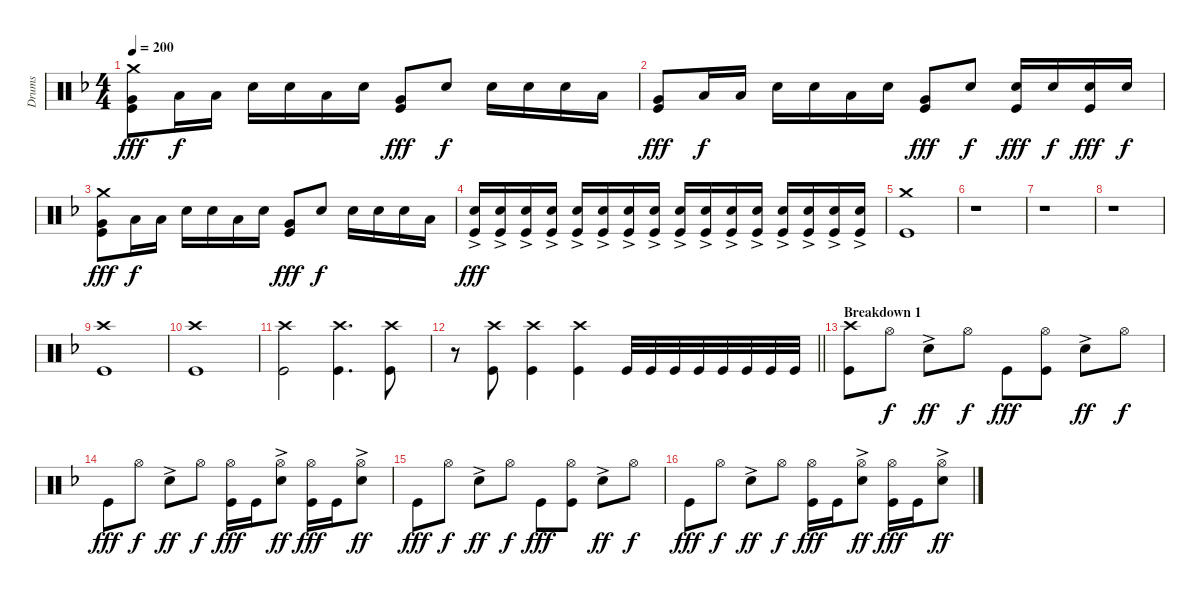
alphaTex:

\track ("Drums" "Drums") {instrument percussion bank 25}
\staff {score}
\articulation defaults
\ts (4 4)
\tempo 200
\clef neutral
\ks dminor
("Crash medium (hit)" "Very Low Tom (hit)" "Kick (hit)").8{dy fff} "Low Tom (hit)".16{dy f} "Low Tom (hit)".16 "Electric Snare (hit)".16 "Electric Snare (hit)".16 "Low Tom (hit)".16 "Electric Snare (hit)".16 ("Very Low Tom (hit)" "Kick (hit)").8{dy fff} "Electric Snare (hit)".8{dy f} "Electric Snare (hit)".16 "Electric Snare (hit)".16 "Electric Snare (hit)".16 "Low Tom (hit)".16 |
("Very Low Tom (hit)" "Kick (hit)").8{dy fff} "Low Tom (hit)".16{dy f} "Low Tom (hit)".16 "Electric Snare (hit)".16 "Electric Snare (hit)".16 "Low Tom (hit)".16 "Electric Snare (hit)".16 ("Very Low Tom (hit)" "Kick (hit)").8{dy fff} "Electric Snare (hit)".8{dy f} ("Electric Snare (hit)" "Kick (hit)").16{dy fff} "Electric Snare (hit)".16{dy f} ("Electric Snare (hit)" "Kick (hit)").16{dy fff} "Electric Snare (hit)".16{dy f} |
("Crash medium (hit)" "Very Low Tom (hit)" "Kick (hit)").8{dy fff} "Low Tom (hit)".16{dy f} "Low Tom (hit)".16 "Electric Snare (hit)".16 "Electric Snare (hit)".16 "Low Tom (hit)".16 "Electric Snare (hit)".16 ("Very Low Tom (hit)" "Kick (hit)").8{dy fff} "Electric Snare (hit)".8{dy f} "Electric Snare (hit)".16 "Electric Snare (hit)".16 "Electric Snare (hit)".16 "Low Tom (hit)".16 |
("Electric Snare (hit)"{ac} "Kick (hit)").16{dy fff} ("Electric Snare (hit)"{ac} "Kick (hit)").16 ("Electric Snare (hit)"{ac} "Kick (hit)").16 ("Electric Snare (hit)"{ac} "Kick (hit)").16 ("Electric Snare (hit)"{ac} "Kick (hit)").16 ("Electric Snare (hit)"{ac} "Kick (hit)").16 ("Electric Snare (hit)"{ac} "Kick (hit)").16 ("Electric Snare (hit)"{ac} "Kick (hit)").16 ("Electric Snare (hit)"{ac} "Kick (hit)").16 ("Electric Snare (hit)"{ac} "Kick (hit)").16 ("Electric Snare (hit)"{ac} "Kick (hit)").16 ("Electric Snare (hit)"{ac} "Kick (hit)").16 ("Electric Snare (hit)"{ac} "Kick (hit)").16 ("Electric Snare (hit)"{ac} "Kick (hit)").16 ("Electric Snare (hit)"{ac} "Kick (hit)").16 ("Electric Snare (hit)"{ac} "Kick (hit)").16 |
("Crash medium (hit)" "Kick (hit)").1 |
r.1 |
r.1 |
r.1 |
("Crash high (hit)" "Kick (hit)").1 |
("Crash high (hit)" "Kick (hit)").1 |
("Crash high (hit)" "Kick (hit)").2 ("Crash high (hit)" "Kick (hit)").4{d} ("Crash high (hit)" "Kick (hit)").8 |
\barLineRight lightlight
r.8 ("Crash high (hit)" "Kick (hit)").8 ("Crash high (hit)" "Kick (hit)").4 ("Crash high (hit)" "Kick (hit)").4 "Kick (hit)".32 "Kick (hit)".32 "Kick (hit)".32 "Kick (hit)".32 "Kick (hit)".32 "Kick (hit)".32 "Kick (hit)".32 "Kick (hit)".32 |
\section ("" "Breakdown 1")
("Crash high (hit)" "Kick (hit)").8 "Hi-Hat (open)".8{dy f} "Snare (hit) 2"{ac}.8{dy ff} "Hi-Hat (open)".8{dy f} "Kick (hit)".8{dy fff} ("Hi-Hat (open)" "Kick (hit)").8 "Snare (hit) 2"{ac}.8{dy ff} "Hi-Hat (open)".8{dy f} |
"Kick (hit)".8{dy fff} "Hi-Hat (open)".8{dy f} "Snare (hit) 2"{ac}.8{dy ff} "Hi-Hat (open)".8{dy f} ("Hi-Hat (open)" "Kick (hit)").16{dy fff} "Kick (hit)".16 ("Hi-Hat (open)" "Snare (hit) 2"{ac}).8{dy ff} ("Hi-Hat (open)" "Kick (hit)").16{dy fff} "Kick (hit)".16 ("Hi-Hat (open)" "Snare (hit) 2"{ac}).8{dy ff} |
"Kick (hit)".8{dy fff} "Hi-Hat (open)".8{dy f} "Snare (hit) 2"{ac}.8{dy ff} "Hi-Hat (open)".8{dy f} "Kick (hit)".8{dy fff} ("Hi-Hat (open)" "Kick (hit)").8 "Snare (hit) 2"{ac}.8{dy ff} "Hi-Hat (open)".8{dy f} |
"Kick (hit)".8{dy fff} "Hi-Hat (open)".8{dy f} "Snare (hit) 2"{ac}.8{dy ff} "Hi-Hat (open)".8{dy f} ("Hi-Hat (open)" "Kick (hit)").16{dy fff} "Kick (hit)".16 ("Hi-Hat (open)" "Snare (hit) 2"{ac}).8{dy ff} ("Hi-Hat (open)" "Kick (hit)").16{dy fff} "Kick (hit)".16 ("Hi-Hat (open)" "Snare (hit) 2"{ac}).8{dy ff}
